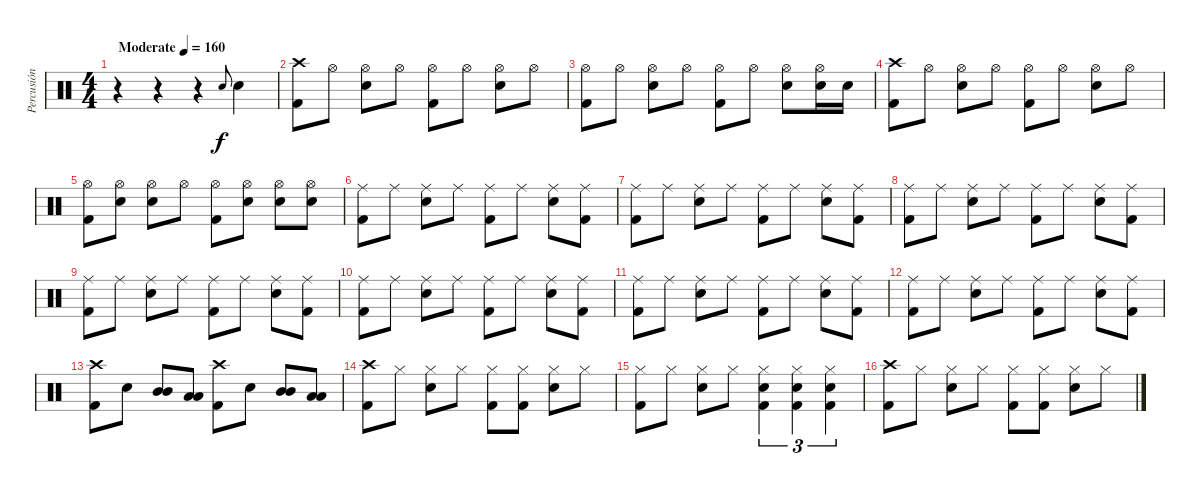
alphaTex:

\track ("Percusión" "Percusión") {instrument percussion}
\staff {score}
\articulation defaults
\ts (4 4)
\tempo (160 "Moderate")
\clef neutral
\ks c
r.4{dy f} r.4 r.4 "Snare (hit) 2".8{gr onbeat} "Snare (hit) 2".4 |
("Crash high (hit)" "Kick (hit) 2").8 "Hi-Hat (open)".8 ("Hi-Hat (open)" "Snare (hit) 2").8 "Hi-Hat (open)".8 ("Hi-Hat (open)" "Kick (hit) 2").8 "Hi-Hat (open)".8 ("Hi-Hat (open)" "Snare (hit) 2").8 "Hi-Hat (open)".8 |
("Hi-Hat (open)" "Kick (hit) 2").8 "Hi-Hat (open)".8 ("Hi-Hat (open)" "Snare (hit) 2").8 "Hi-Hat (open)".8 ("Hi-Hat (open)" "Kick (hit) 2").8 "Hi-Hat (open)".8 ("Hi-Hat (open)" "Snare (hit) 2").8 ("Hi-Hat (open)" "Snare (hit) 2").16 "Snare (hit) 2".16 |
("Crash high (hit)" "Kick (hit) 2").8 "Hi-Hat (open)".8 ("Hi-Hat (open)" "Snare (hit) 2").8 "Hi-Hat (open)".8 ("Hi-Hat (open)" "Kick (hit) 2").8 "Hi-Hat (open)".8 ("Hi-Hat (open)" "Snare (hit) 2").8 "Hi-Hat (open)".8 |
("Hi-Hat (open)" "Kick (hit) 2").8 ("Hi-Hat (open)" "Snare (hit) 2").8 ("Hi-Hat (open)" "Snare (hit) 2").8 "Hi-Hat (open)".8 ("Hi-Hat (open)" "Kick (hit) 2").8 ("Hi-Hat (open)" "Snare (hit) 2").8 ("Hi-Hat (open)" "Snare (hit) 2").8 ("Hi-Hat (open)" "Snare (hit) 2").8 |
("Ride (middle)" "Kick (hit) 2").8 "Ride (middle)".8 ("Ride (middle)" "Snare (hit) 2").8 "Ride (middle)".8 ("Ride (middle)" "Kick (hit) 2").8 "Ride (middle)".8 ("Ride (middle)" "Snare (hit) 2").8 ("Ride (middle)" "Kick (hit) 2").8 |
("Ride (middle)" "Kick (hit) 2").8 "Ride (middle)".8 ("Ride (middle)" "Snare (hit) 2").8 "Ride (middle)".8 ("Ride (middle)" "Kick (hit) 2").8 "Ride (middle)".8 ("Ride (middle)" "Snare (hit) 2").8 ("Ride (middle)" "Kick (hit) 2").8 |
("Ride (middle)" "Kick (hit) 2").8 "Ride (middle)".8 ("Ride (middle)" "Snare (hit) 2").8 "Ride (middle)".8 ("Ride (middle)" "Kick (hit) 2").8 "Ride (middle)".8 ("Ride (middle)" "Snare (hit) 2").8 ("Ride (middle)" "Kick (hit) 2").8 |
("Ride (middle)" "Kick (hit) 2").8 "Ride (middle)".8 ("Ride (middle)" "Snare (hit) 2").8 "Ride (middle)".8 ("Ride (middle)" "Kick (hit) 2").8 "Ride (middle)".8 ("Ride (middle)" "Snare (hit) 2").8 ("Ride (middle)" "Kick (hit) 2").8 |
("Ride (middle)" "Kick (hit) 2").8 "Ride (middle)".8 ("Ride (middle)" "Snare (hit) 2").8 "Ride (middle)".8 ("Ride (middle)" "Kick (hit) 2").8 "Ride (middle)".8 ("Ride (middle)" "Snare (hit) 2").8 ("Ride (middle)" "Kick (hit) 2").8 |
("Ride (middle)" "Kick (hit) 2").8 "Ride (middle)".8 ("Ride (middle)" "Snare (hit) 2").8 "Ride (middle)".8 ("Ride (middle)" "Kick (hit) 2").8 "Ride (middle)".8 ("Ride (middle)" "Snare (hit) 2").8 ("Ride (middle)" "Kick (hit) 2").8 |
("Ride (middle)" "Kick (hit) 2").8 "Ride (middle)".8 ("Ride (middle)" "Snare (hit) 2").8 "Ride (middle)".8 ("Ride (middle)" "Kick (hit) 2").8 "Ride (middle)".8 ("Ride (middle)" "Snare (hit) 2").8 ("Ride (middle)" "Kick (hit) 2").8 |
("Crash high (hit)" "Kick (hit) 2").8 "Snare (hit) 2".8 ("Mid Tom (hit)" "Mid Tom (hit)").8 ("Low Tom (hit)" "Low Tom (hit)").8 ("Crash high (hit)" "Kick (hit) 2").8 "Snare (hit) 2".8 ("Mid Tom (hit)" "Mid Tom (hit)").8 ("Low Tom (hit)" "Low Tom (hit)").8 |
("Crash high (hit)" "Kick (hit) 2").8 "Hi-Hat (closed)".8 ("Hi-Hat (closed)" "Snare (hit) 2").8 "Hi-Hat (closed)".8 ("Hi-Hat (closed)" "Kick (hit) 2").8 ("Hi-Hat (closed)" "Kick (hit) 2").8 ("Hi-Hat (closed)" "Snare (hit) 2").8 "Hi-Hat (closed)".8 |
("Hi-Hat (closed)" "Kick (hit) 2").8 "Hi-Hat (closed)".8 ("Hi-Hat (closed)" "Snare (hit) 2").8 "Hi-Hat (closed)".8 ("Hi-Hat (closed)" "Snare (hit) 2" "Kick (hit) 2").4{tu (3 2)} ("Hi-Hat (closed)" "Snare (hit) 2" "Kick (hit) 2").4{tu (3 2)} ("Hi-Hat (closed)" "Snare (hit) 2" "Kick (hit) 2").4{tu (3 2)} |
("Crash high (hit)" "Kick (hit) 2").8 "Hi-Hat (closed)".8 ("Hi-Hat (closed)" "Snare (hit) 2").8 "Hi-Hat (closed)".8 ("Hi-Hat (closed)" "Kick (hit) 2").8 ("Hi-Hat (closed)" "Kick (hit) 2").8 ("Hi-Hat (closed)" "Snare (hit) 2").8 "Hi-Hat (closed)".8
